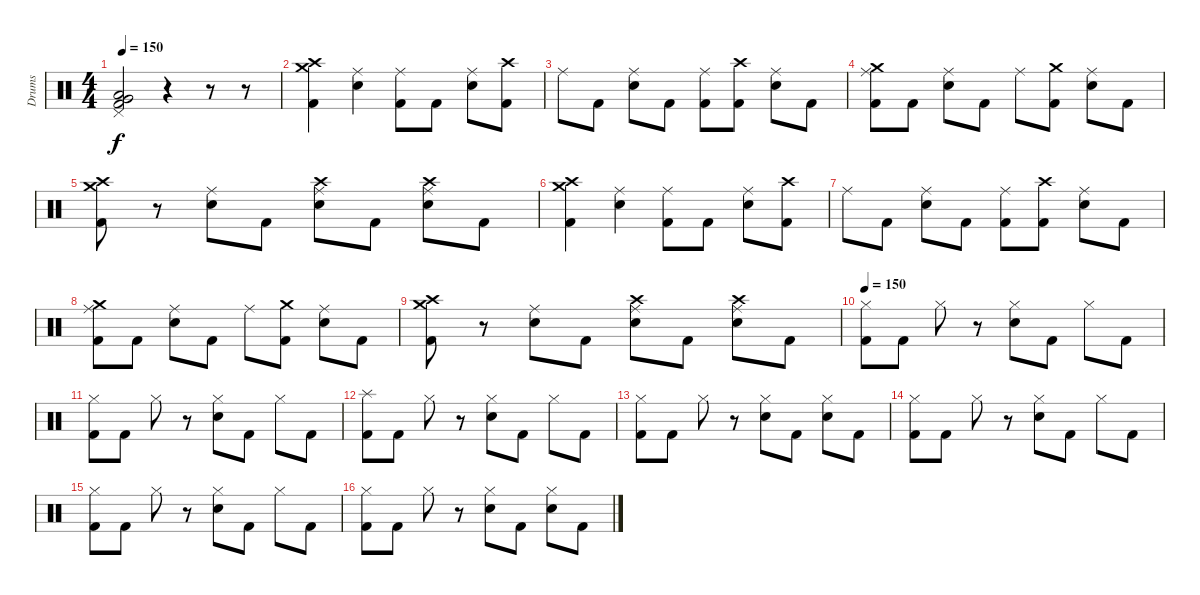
\track ("Drums" "Drums") {instrument percussion}
\staff {score}
\articulation defaults
\ts (4 4)
\tempo 150
\clef neutral
\ks c
("Pedal Hi-Hat (hit)" "Very Low Tom (hit)" "Low Tom (hit)" "Kick (hit) 2").2{dy f} r.4 r.8 r.8 |
("Crash medium (hit)" "Crash high (hit)" "Kick (hit) 2").4 ("Ride (middle)" "Snare (hit) 2").4 ("Ride (middle)" "Kick (hit) 2").8 "Kick (hit) 2".8 ("Ride (middle)" "Snare (hit) 2").8 ("Crash high (hit)" "Kick (hit) 2").8 |
"Ride (middle)".8 "Kick (hit) 2".8 ("Ride (middle)" "Snare (hit) 2").8 "Kick (hit) 2".8 ("Ride (middle)" "Kick (hit) 2").8 ("Crash high (hit)" "Kick (hit) 2").8 ("Ride (middle)" "Snare (hit) 2").8 "Kick (hit) 2".8 |
("Crash medium (hit)" "Ride (middle)" "Kick (hit) 2").8 "Kick (hit) 2".8 ("Ride (middle)" "Snare (hit) 2").8 "Kick (hit) 2".8 "Ride (middle)".8 ("Crash medium (hit)" "Kick (hit) 2").8 ("Ride (middle)" "Snare (hit) 2").8 "Kick (hit) 2".8 |
("Crash medium (hit)" "Crash high (hit)" "Kick (hit) 2").8 r.8 ("Ride (middle)" "Snare (hit) 2").8 "Kick (hit) 2".8 ("Ride (middle)" "Crash high (hit)" "Snare (hit) 2").8 "Kick (hit) 2".8 ("Ride (middle)" "Crash high (hit)" "Snare (hit) 2").8 "Kick (hit) 2".8 |
("Crash medium (hit)" "Crash high (hit)" "Kick (hit) 2").4 ("Ride (middle)" "Snare (hit) 2").4 ("Ride (middle)" "Kick (hit) 2").8 "Kick (hit) 2".8 ("Ride (middle)" "Snare (hit) 2").8 ("Crash high (hit)" "Kick (hit) 2").8 |
"Ride (middle)".8 "Kick (hit) 2".8 ("Ride (middle)" "Snare (hit) 2").8 "Kick (hit) 2".8 ("Ride (middle)" "Kick (hit) 2").8 ("Crash high (hit)" "Kick (hit) 2").8 ("Ride (middle)" "Snare (hit) 2").8 "Kick (hit) 2".8 |
("Crash medium (hit)" "Ride (middle)" "Kick (hit) 2").8 "Kick (hit) 2".8 ("Ride (middle)" "Snare (hit) 2").8 "Kick (hit) 2".8 "Ride (middle)".8 ("Crash medium (hit)" "Kick (hit) 2").8 ("Ride (middle)" "Snare (hit) 2").8 "Kick (hit) 2".8 |
("Crash medium (hit)" "Crash high (hit)" "Kick (hit) 2").8 r.8 ("Ride (middle)" "Snare (hit) 2").8 "Kick (hit) 2".8 ("Ride (middle)" "Crash high (hit)" "Snare (hit) 2").8 "Kick (hit) 2".8 ("Ride (middle)" "Crash high (hit)" "Snare (hit) 2").8 "Kick (hit) 2".8 |
\tempo 150
("Hi-Hat (closed)" "Kick (hit) 2").8 "Kick (hit) 2".8 "Hi-Hat (closed)".8 r.8 ("Hi-Hat (closed)" "Snare (hit) 2").8 "Kick (hit) 2".8 "Hi-Hat (closed)".8 "Kick (hit) 2".8 |
("Hi-Hat (closed)" "Kick (hit) 2").8 "Kick (hit) 2".8 "Hi-Hat (closed)".8 r.8 ("Hi-Hat (closed)" "Snare (hit) 2").8 "Kick (hit) 2".8 "Hi-Hat (closed)".8 "Kick (hit) 2".8 |
("Splash (hit)" "Kick (hit) 2").8 "Kick (hit) 2".8 "Hi-Hat (closed)".8 r.8 ("Hi-Hat (closed)" "Snare (hit) 2").8 "Kick (hit) 2".8 "Hi-Hat (closed)".8 "Kick (hit) 2".8 |
("Hi-Hat (closed)" "Kick (hit) 2").8 "Kick (hit) 2".8 "Hi-Hat (closed)".8 r.8 ("Hi-Hat (closed)" "Snare (hit) 2").8 "Kick (hit) 2".8 ("Hi-Hat (closed)" "Snare (hit) 2").8 "Kick (hit) 2".8 |
("Hi-Hat (closed)" "Kick (hit) 2").8 "Kick (hit) 2".8 "Hi-Hat (closed)".8 r.8 ("Hi-Hat (closed)" "Snare (hit) 2").8 "Kick (hit) 2".8 "Hi-Hat (closed)".8 "Kick (hit) 2".8 |
("Hi-Hat (closed)" "Kick (hit) 2").8 "Kick (hit) 2".8 "Hi-Hat (closed)".8 r.8 ("Hi-Hat (closed)" "Snare (hit) 2").8 "Kick (hit) 2".8 "Hi-Hat (closed)".8 "Kick (hit) 2".8 |
("Hi-Hat (closed)" "Kick (hit) 2").8 "Kick (hit) 2".8 "Hi-Hat (closed)".8 r.8 ("Hi-Hat (closed)" "Snare (hit) 2").8 "Kick (hit) 2".8 ("Hi-Hat (closed)" "Snare (hit) 2").8 "Kick (hit) 2".8
